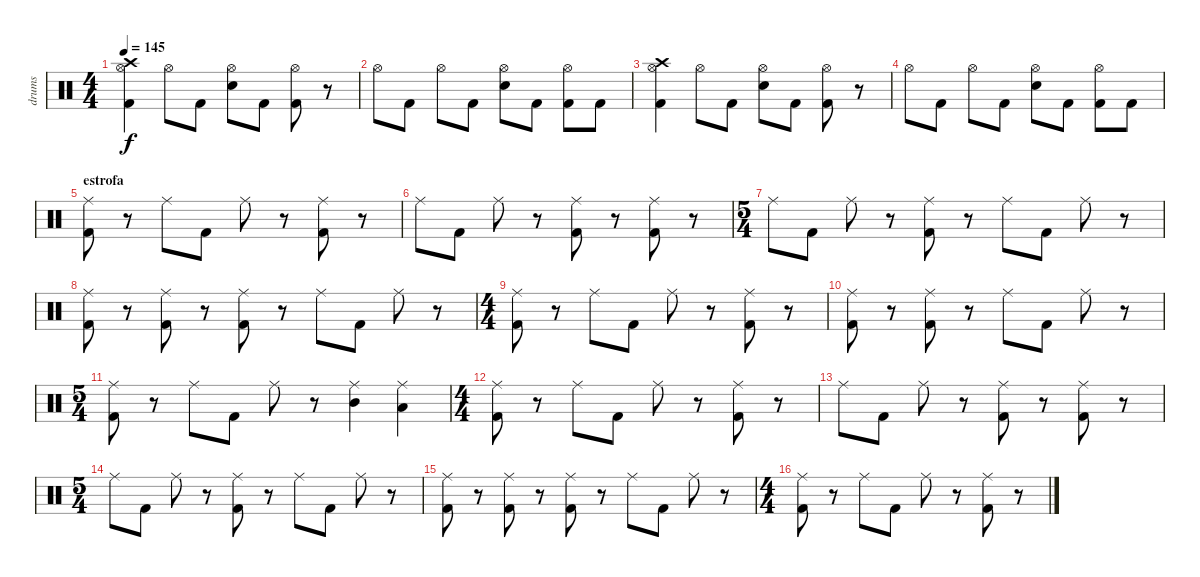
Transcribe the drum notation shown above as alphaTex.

\track ("drums" "drums") {instrument percussion}
\staff {score}
\articulation defaults
\ts (4 4)
\tempo 145
\clef neutral
\ks c
("Kick (hit) 2" "Hi-Hat (open)" "Crash high (hit)").4{dy f} "Hi-Hat (open)".8 "Kick (hit) 2".8 ("Snare (hit) 2" "Hi-Hat (open)").8 "Kick (hit) 2".8 ("Kick (hit) 2" "Hi-Hat (open)").8 r.8 |
"Hi-Hat (open)".8 "Kick (hit) 2".8 "Hi-Hat (open)".8 "Kick (hit) 2".8 ("Snare (hit) 2" "Hi-Hat (open)").8 "Kick (hit) 2".8 ("Kick (hit) 2" "Hi-Hat (open)").8 "Kick (hit) 2".8 |
("Kick (hit) 2" "Hi-Hat (open)" "Crash high (hit)").4 "Hi-Hat (open)".8 "Kick (hit) 2".8 ("Snare (hit) 2" "Hi-Hat (open)").8 "Kick (hit) 2".8 ("Kick (hit) 2" "Hi-Hat (open)").8 r.8 |
"Hi-Hat (open)".8 "Kick (hit) 2".8 "Hi-Hat (open)".8 "Kick (hit) 2".8 ("Snare (hit) 2" "Hi-Hat (open)").8 "Kick (hit) 2".8 ("Kick (hit) 2" "Hi-Hat (open)").8 "Kick (hit) 2".8 |
\section ("" "estrofa")
("Kick (hit) 2" "Ride (middle)").8 r.8 "Ride (middle)".8 "Kick (hit) 2".8 "Ride (middle)".8 r.8 ("Kick (hit) 2" "Ride (middle)").8 r.8 |
"Ride (middle)".8 "Kick (hit) 2".8 "Ride (middle)".8 r.8 ("Kick (hit) 2" "Ride (middle)").8 r.8 ("Kick (hit) 2" "Ride (middle)").8 r.8 |
\ts (5 4)
"Ride (middle)".8 "Kick (hit) 2".8 "Ride (middle)".8 r.8 ("Kick (hit) 2" "Ride (middle)").8 r.8 "Ride (middle)".8 "Kick (hit) 2".8 "Ride (middle)".8 r.8 |
("Kick (hit) 2" "Ride (middle)").8 r.8 ("Kick (hit) 2" "Ride (middle)").8 r.8 ("Kick (hit) 2" "Ride (middle)").8 r.8 "Ride (middle)".8 "Kick (hit) 2".8 "Ride (middle)".8 r.8 |
\ts (4 4)
("Kick (hit) 2" "Ride (middle)").8 r.8 "Ride (middle)".8 "Kick (hit) 2".8 "Ride (middle)".8 r.8 ("Kick (hit) 2" "Ride (middle)").8 r.8 |
("Kick (hit) 2" "Ride (middle)").8 r.8 ("Kick (hit) 2" "Ride (middle)").8 r.8 "Ride (middle)".8 "Kick (hit) 2".8 "Ride (middle)".8 r.8 |
\ts (5 4)
("Kick (hit) 2" "Ride (middle)").8 r.8 "Ride (middle)".8 "Kick (hit) 2".8 "Ride (middle)".8 r.8 ("Mid Tom (hit)" "Ride (middle)").4 ("Low Tom (hit)" "Ride (middle)").4 |
\ts (4 4)
("Kick (hit) 2" "Ride (middle)").8 r.8 "Ride (middle)".8 "Kick (hit) 2".8 "Ride (middle)".8 r.8 ("Kick (hit) 2" "Ride (middle)").8 r.8 |
"Ride (middle)".8 "Kick (hit) 2".8 "Ride (middle)".8 r.8 ("Kick (hit) 2" "Ride (middle)").8 r.8 ("Kick (hit) 2" "Ride (middle)").8 r.8 |
\ts (5 4)
"Ride (middle)".8 "Kick (hit) 2".8 "Ride (middle)".8 r.8 ("Kick (hit) 2" "Ride (middle)").8 r.8 "Ride (middle)".8 "Kick (hit) 2".8 "Ride (middle)".8 r.8 |
("Kick (hit) 2" "Ride (middle)").8 r.8 ("Kick (hit) 2" "Ride (middle)").8 r.8 ("Kick (hit) 2" "Ride (middle)").8 r.8 "Ride (middle)".8 "Kick (hit) 2".8 "Ride (middle)".8 r.8 |
\ts (4 4)
("Kick (hit) 2" "Ride (middle)").8 r.8 "Ride (middle)".8 "Kick (hit) 2".8 "Ride (middle)".8 r.8 ("Kick (hit) 2" "Ride (middle)").8 r.8
